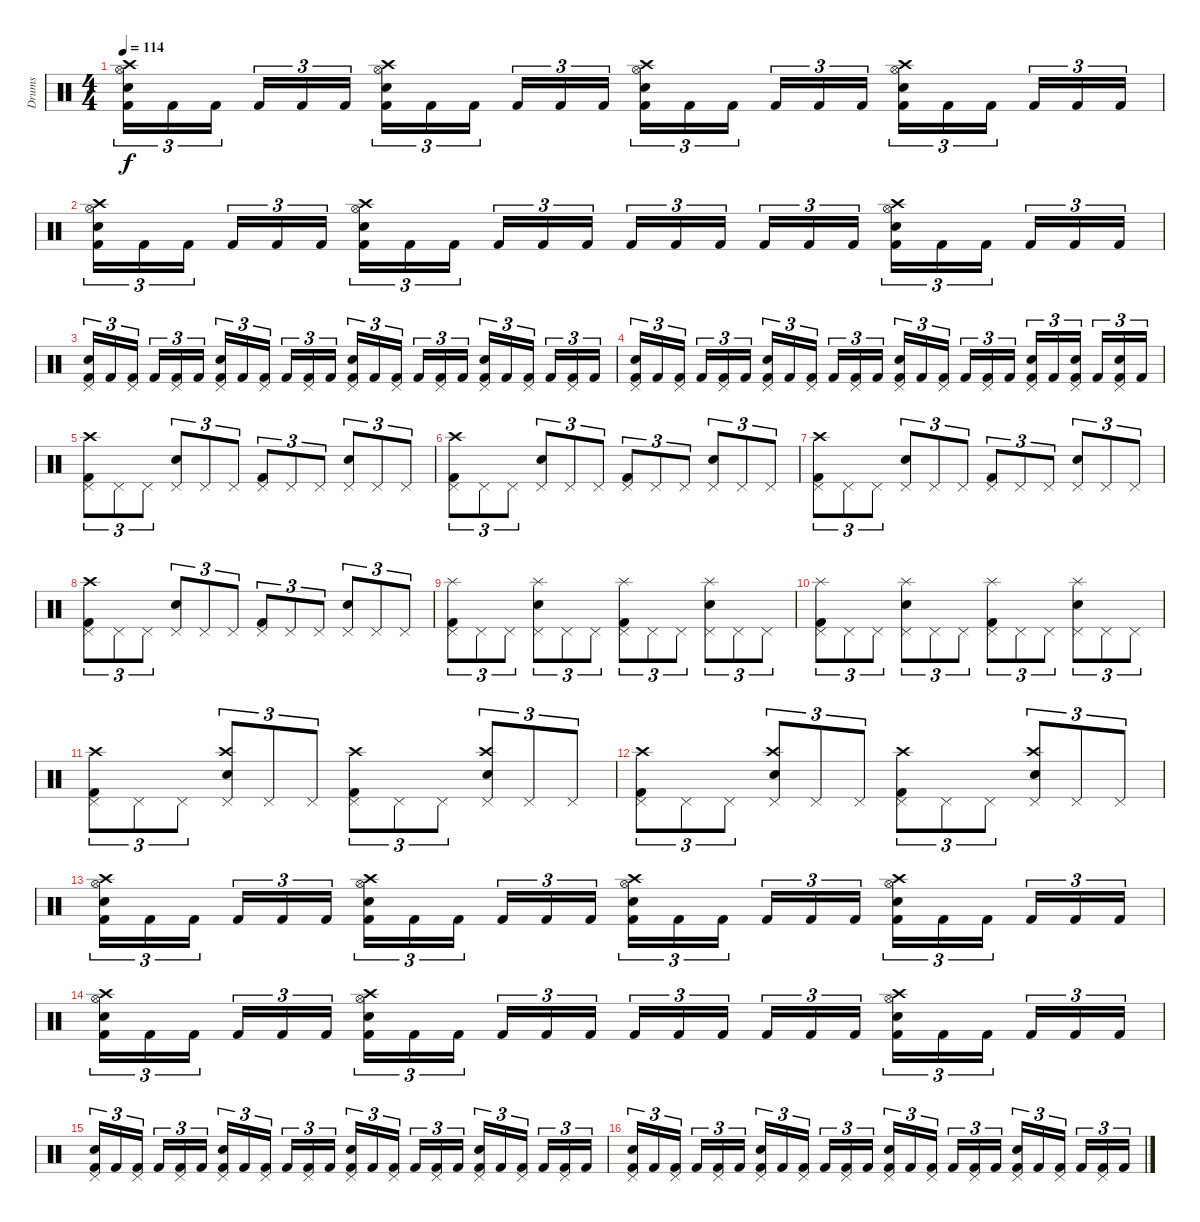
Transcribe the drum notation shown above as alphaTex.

\track ("Drums" "Drums") {instrument percussion}
\staff {score}
\articulation defaults
\ts (4 4)
\tempo 114
\clef neutral
\ks c
("Hi-Hat (open)" "Electric Snare (hit)" "Crash high (hit)" "Kick (hit) 2").16{tu (3 2) dy f} "Kick (hit) 2".16{tu (3 2)} "Kick (hit) 2".16{tu (3 2)} "Kick (hit) 2".16{tu (3 2)} "Kick (hit) 2".16{tu (3 2)} "Kick (hit) 2".16{tu (3 2)} ("Hi-Hat (open)" "Electric Snare (hit)" "Crash high (hit)" "Kick (hit) 2").16{tu (3 2)} "Kick (hit) 2".16{tu (3 2)} "Kick (hit) 2".16{tu (3 2)} "Kick (hit) 2".16{tu (3 2)} "Kick (hit) 2".16{tu (3 2)} "Kick (hit) 2".16{tu (3 2)} ("Hi-Hat (open)" "Electric Snare (hit)" "Crash high (hit)" "Kick (hit) 2").16{tu (3 2)} "Kick (hit) 2".16{tu (3 2)} "Kick (hit) 2".16{tu (3 2)} "Kick (hit) 2".16{tu (3 2)} "Kick (hit) 2".16{tu (3 2)} "Kick (hit) 2".16{tu (3 2)} ("Hi-Hat (open)" "Electric Snare (hit)" "Crash high (hit)" "Kick (hit) 2").16{tu (3 2)} "Kick (hit) 2".16{tu (3 2)} "Kick (hit) 2".16{tu (3 2)} "Kick (hit) 2".16{tu (3 2)} "Kick (hit) 2".16{tu (3 2)} "Kick (hit) 2".16{tu (3 2)} |
("Hi-Hat (open)" "Electric Snare (hit)" "Crash high (hit)" "Kick (hit) 2").16{tu (3 2)} "Kick (hit) 2".16{tu (3 2)} "Kick (hit) 2".16{tu (3 2)} "Kick (hit) 2".16{tu (3 2)} "Kick (hit) 2".16{tu (3 2)} "Kick (hit) 2".16{tu (3 2)} ("Hi-Hat (open)" "Electric Snare (hit)" "Crash high (hit)" "Kick (hit) 2").16{tu (3 2)} "Kick (hit) 2".16{tu (3 2)} "Kick (hit) 2".16{tu (3 2)} "Kick (hit) 2".16{tu (3 2)} "Kick (hit) 2".16{tu (3 2)} "Kick (hit) 2".16{tu (3 2)} "Kick (hit) 2".16{tu (3 2)} "Kick (hit) 2".16{tu (3 2)} "Kick (hit) 2".16{tu (3 2)} "Kick (hit) 2".16{tu (3 2)} "Kick (hit) 2".16{tu (3 2)} "Kick (hit) 2".16{tu (3 2)} ("Hi-Hat (open)" "Electric Snare (hit)" "Crash high (hit)" "Kick (hit) 2").16{tu (3 2)} "Kick (hit) 2".16{tu (3 2)} "Kick (hit) 2".16{tu (3 2)} "Kick (hit) 2".16{tu (3 2)} "Kick (hit) 2".16{tu (3 2)} "Kick (hit) 2".16{tu (3 2)} |
("Pedal Hi-Hat (hit)" "Electric Snare (hit)" "Kick (hit) 2").16{tu (3 2)} "Kick (hit) 2".16{tu (3 2)} ("Pedal Hi-Hat (hit)" "Kick (hit) 2").16{tu (3 2)} "Kick (hit) 2".16{tu (3 2)} ("Pedal Hi-Hat (hit)" "Kick (hit) 2").16{tu (3 2)} "Kick (hit) 2".16{tu (3 2)} ("Pedal Hi-Hat (hit)" "Electric Snare (hit)" "Kick (hit) 2").16{tu (3 2)} "Kick (hit) 2".16{tu (3 2)} ("Pedal Hi-Hat (hit)" "Kick (hit) 2").16{tu (3 2)} "Kick (hit) 2".16{tu (3 2)} ("Pedal Hi-Hat (hit)" "Kick (hit) 2").16{tu (3 2)} "Kick (hit) 2".16{tu (3 2)} ("Pedal Hi-Hat (hit)" "Electric Snare (hit)" "Kick (hit) 2").16{tu (3 2)} "Kick (hit) 2".16{tu (3 2)} ("Pedal Hi-Hat (hit)" "Kick (hit) 2").16{tu (3 2)} "Kick (hit) 2".16{tu (3 2)} ("Pedal Hi-Hat (hit)" "Kick (hit) 2").16{tu (3 2)} "Kick (hit) 2".16{tu (3 2)} ("Pedal Hi-Hat (hit)" "Electric Snare (hit)" "Kick (hit) 2").16{tu (3 2)} "Kick (hit) 2".16{tu (3 2)} ("Pedal Hi-Hat (hit)" "Kick (hit) 2").16{tu (3 2)} "Kick (hit) 2".16{tu (3 2)} ("Pedal Hi-Hat (hit)" "Kick (hit) 2").16{tu (3 2)} "Kick (hit) 2".16{tu (3 2)} |
("Pedal Hi-Hat (hit)" "Electric Snare (hit)" "Kick (hit) 2").16{tu (3 2)} "Kick (hit) 2".16{tu (3 2)} ("Pedal Hi-Hat (hit)" "Kick (hit) 2").16{tu (3 2)} "Kick (hit) 2".16{tu (3 2)} ("Pedal Hi-Hat (hit)" "Kick (hit) 2").16{tu (3 2)} "Kick (hit) 2".16{tu (3 2)} ("Pedal Hi-Hat (hit)" "Electric Snare (hit)" "Kick (hit) 2").16{tu (3 2)} "Kick (hit) 2".16{tu (3 2)} ("Pedal Hi-Hat (hit)" "Kick (hit) 2").16{tu (3 2)} "Kick (hit) 2".16{tu (3 2)} ("Pedal Hi-Hat (hit)" "Kick (hit) 2").16{tu (3 2)} "Kick (hit) 2".16{tu (3 2)} ("Pedal Hi-Hat (hit)" "Electric Snare (hit)" "Kick (hit) 2").16{tu (3 2)} "Kick (hit) 2".16{tu (3 2)} ("Pedal Hi-Hat (hit)" "Kick (hit) 2").16{tu (3 2)} "Kick (hit) 2".16{tu (3 2)} ("Pedal Hi-Hat (hit)" "Kick (hit) 2").16{tu (3 2)} "Kick (hit) 2".16{tu (3 2)} ("Pedal Hi-Hat (hit)" "Electric Snare (hit)" "Kick (hit) 2").16{tu (3 2)} "Kick (hit) 2".16{tu (3 2)} ("Pedal Hi-Hat (hit)" "Electric Snare (hit)" "Kick (hit) 2").16{tu (3 2)} "Kick (hit) 2".16{tu (3 2)} ("Pedal Hi-Hat (hit)" "Electric Snare (hit)" "Kick (hit) 2").16{tu (3 2)} "Kick (hit) 2".16{tu (3 2)} |
("Pedal Hi-Hat (hit)" "Kick (hit) 2" "Crash high (hit)").8{tu (3 2)} "Pedal Hi-Hat (hit)".8{tu (3 2)} "Pedal Hi-Hat (hit)".8{tu (3 2)} ("Pedal Hi-Hat (hit)" "Electric Snare (hit)").8{tu (3 2)} "Pedal Hi-Hat (hit)".8{tu (3 2)} "Pedal Hi-Hat (hit)".8{tu (3 2)} ("Pedal Hi-Hat (hit)" "Kick (hit) 2").8{tu (3 2)} "Pedal Hi-Hat (hit)".8{tu (3 2)} "Pedal Hi-Hat (hit)".8{tu (3 2)} ("Pedal Hi-Hat (hit)" "Electric Snare (hit)").8{tu (3 2)} "Pedal Hi-Hat (hit)".8{tu (3 2)} "Pedal Hi-Hat (hit)".8{tu (3 2)} |
("Pedal Hi-Hat (hit)" "Kick (hit) 2" "Crash high (hit)").8{tu (3 2)} "Pedal Hi-Hat (hit)".8{tu (3 2)} "Pedal Hi-Hat (hit)".8{tu (3 2)} ("Pedal Hi-Hat (hit)" "Electric Snare (hit)").8{tu (3 2)} "Pedal Hi-Hat (hit)".8{tu (3 2)} "Pedal Hi-Hat (hit)".8{tu (3 2)} ("Pedal Hi-Hat (hit)" "Kick (hit) 2").8{tu (3 2)} "Pedal Hi-Hat (hit)".8{tu (3 2)} "Pedal Hi-Hat (hit)".8{tu (3 2)} ("Pedal Hi-Hat (hit)" "Electric Snare (hit)").8{tu (3 2)} "Pedal Hi-Hat (hit)".8{tu (3 2)} "Pedal Hi-Hat (hit)".8{tu (3 2)} |
("Pedal Hi-Hat (hit)" "Kick (hit) 2" "Crash high (hit)").8{tu (3 2)} "Pedal Hi-Hat (hit)".8{tu (3 2)} "Pedal Hi-Hat (hit)".8{tu (3 2)} ("Pedal Hi-Hat (hit)" "Electric Snare (hit)").8{tu (3 2)} "Pedal Hi-Hat (hit)".8{tu (3 2)} "Pedal Hi-Hat (hit)".8{tu (3 2)} ("Pedal Hi-Hat (hit)" "Kick (hit) 2").8{tu (3 2)} "Pedal Hi-Hat (hit)".8{tu (3 2)} "Pedal Hi-Hat (hit)".8{tu (3 2)} ("Pedal Hi-Hat (hit)" "Electric Snare (hit)").8{tu (3 2)} "Pedal Hi-Hat (hit)".8{tu (3 2)} "Pedal Hi-Hat (hit)".8{tu (3 2)} |
("Pedal Hi-Hat (hit)" "Kick (hit) 2" "Crash high (hit)").8{tu (3 2)} "Pedal Hi-Hat (hit)".8{tu (3 2)} "Pedal Hi-Hat (hit)".8{tu (3 2)} ("Pedal Hi-Hat (hit)" "Electric Snare (hit)").8{tu (3 2)} "Pedal Hi-Hat (hit)".8{tu (3 2)} "Pedal Hi-Hat (hit)".8{tu (3 2)} ("Pedal Hi-Hat (hit)" "Kick (hit) 2").8{tu (3 2)} "Pedal Hi-Hat (hit)".8{tu (3 2)} "Pedal Hi-Hat (hit)".8{tu (3 2)} ("Pedal Hi-Hat (hit)" "Electric Snare (hit)").8{tu (3 2)} "Pedal Hi-Hat (hit)".8{tu (3 2)} "Pedal Hi-Hat (hit)".8{tu (3 2)} |
("Pedal Hi-Hat (hit)" "Kick (hit) 2" "Splash (hit)").8{tu (3 2)} "Pedal Hi-Hat (hit)".8{tu (3 2)} "Pedal Hi-Hat (hit)".8{tu (3 2)} ("Pedal Hi-Hat (hit)" "Electric Snare (hit)" "Splash (hit)").8{tu (3 2)} "Pedal Hi-Hat (hit)".8{tu (3 2)} "Pedal Hi-Hat (hit)".8{tu (3 2)} ("Pedal Hi-Hat (hit)" "Kick (hit) 2" "Splash (hit)").8{tu (3 2)} "Pedal Hi-Hat (hit)".8{tu (3 2)} "Pedal Hi-Hat (hit)".8{tu (3 2)} ("Pedal Hi-Hat (hit)" "Electric Snare (hit)" "Splash (hit)").8{tu (3 2)} "Pedal Hi-Hat (hit)".8{tu (3 2)} "Pedal Hi-Hat (hit)".8{tu (3 2)} |
("Pedal Hi-Hat (hit)" "Kick (hit) 2" "Splash (hit)").8{tu (3 2)} "Pedal Hi-Hat (hit)".8{tu (3 2)} "Pedal Hi-Hat (hit)".8{tu (3 2)} ("Pedal Hi-Hat (hit)" "Electric Snare (hit)" "Splash (hit)").8{tu (3 2)} "Pedal Hi-Hat (hit)".8{tu (3 2)} "Pedal Hi-Hat (hit)".8{tu (3 2)} ("Pedal Hi-Hat (hit)" "Kick (hit) 2" "Splash (hit)").8{tu (3 2)} "Pedal Hi-Hat (hit)".8{tu (3 2)} "Pedal Hi-Hat (hit)".8{tu (3 2)} ("Pedal Hi-Hat (hit)" "Electric Snare (hit)" "Splash (hit)").8{tu (3 2)} "Pedal Hi-Hat (hit)".8{tu (3 2)} "Pedal Hi-Hat (hit)".8{tu (3 2)} |
("Pedal Hi-Hat (hit)" "Kick (hit) 2" "Crash high (hit)").8{tu (3 2)} "Pedal Hi-Hat (hit)".8{tu (3 2)} "Pedal Hi-Hat (hit)".8{tu (3 2)} ("Pedal Hi-Hat (hit)" "Electric Snare (hit)" "Crash high (hit)").8{tu (3 2)} "Pedal Hi-Hat (hit)".8{tu (3 2)} "Pedal Hi-Hat (hit)".8{tu (3 2)} ("Pedal Hi-Hat (hit)" "Kick (hit) 2" "Crash high (hit)").8{tu (3 2)} "Pedal Hi-Hat (hit)".8{tu (3 2)} "Pedal Hi-Hat (hit)".8{tu (3 2)} ("Pedal Hi-Hat (hit)" "Electric Snare (hit)" "Crash high (hit)").8{tu (3 2)} "Pedal Hi-Hat (hit)".8{tu (3 2)} "Pedal Hi-Hat (hit)".8{tu (3 2)} |
("Pedal Hi-Hat (hit)" "Kick (hit) 2" "Crash high (hit)").8{tu (3 2)} "Pedal Hi-Hat (hit)".8{tu (3 2)} "Pedal Hi-Hat (hit)".8{tu (3 2)} ("Pedal Hi-Hat (hit)" "Electric Snare (hit)" "Crash high (hit)").8{tu (3 2)} "Pedal Hi-Hat (hit)".8{tu (3 2)} "Pedal Hi-Hat (hit)".8{tu (3 2)} ("Pedal Hi-Hat (hit)" "Kick (hit) 2" "Crash high (hit)").8{tu (3 2)} "Pedal Hi-Hat (hit)".8{tu (3 2)} "Pedal Hi-Hat (hit)".8{tu (3 2)} ("Pedal Hi-Hat (hit)" "Electric Snare (hit)" "Crash high (hit)").8{tu (3 2)} "Pedal Hi-Hat (hit)".8{tu (3 2)} "Pedal Hi-Hat (hit)".8{tu (3 2)} |
("Hi-Hat (open)" "Electric Snare (hit)" "Crash high (hit)" "Kick (hit) 2").16{tu (3 2)} "Kick (hit) 2".16{tu (3 2)} "Kick (hit) 2".16{tu (3 2)} "Kick (hit) 2".16{tu (3 2)} "Kick (hit) 2".16{tu (3 2)} "Kick (hit) 2".16{tu (3 2)} ("Hi-Hat (open)" "Electric Snare (hit)" "Crash high (hit)" "Kick (hit) 2").16{tu (3 2)} "Kick (hit) 2".16{tu (3 2)} "Kick (hit) 2".16{tu (3 2)} "Kick (hit) 2".16{tu (3 2)} "Kick (hit) 2".16{tu (3 2)} "Kick (hit) 2".16{tu (3 2)} ("Hi-Hat (open)" "Electric Snare (hit)" "Crash high (hit)" "Kick (hit) 2").16{tu (3 2)} "Kick (hit) 2".16{tu (3 2)} "Kick (hit) 2".16{tu (3 2)} "Kick (hit) 2".16{tu (3 2)} "Kick (hit) 2".16{tu (3 2)} "Kick (hit) 2".16{tu (3 2)} ("Hi-Hat (open)" "Electric Snare (hit)" "Crash high (hit)" "Kick (hit) 2").16{tu (3 2)} "Kick (hit) 2".16{tu (3 2)} "Kick (hit) 2".16{tu (3 2)} "Kick (hit) 2".16{tu (3 2)} "Kick (hit) 2".16{tu (3 2)} "Kick (hit) 2".16{tu (3 2)} |
("Hi-Hat (open)" "Electric Snare (hit)" "Crash high (hit)" "Kick (hit) 2").16{tu (3 2)} "Kick (hit) 2".16{tu (3 2)} "Kick (hit) 2".16{tu (3 2)} "Kick (hit) 2".16{tu (3 2)} "Kick (hit) 2".16{tu (3 2)} "Kick (hit) 2".16{tu (3 2)} ("Hi-Hat (open)" "Electric Snare (hit)" "Crash high (hit)" "Kick (hit) 2").16{tu (3 2)} "Kick (hit) 2".16{tu (3 2)} "Kick (hit) 2".16{tu (3 2)} "Kick (hit) 2".16{tu (3 2)} "Kick (hit) 2".16{tu (3 2)} "Kick (hit) 2".16{tu (3 2)} "Kick (hit) 2".16{tu (3 2)} "Kick (hit) 2".16{tu (3 2)} "Kick (hit) 2".16{tu (3 2)} "Kick (hit) 2".16{tu (3 2)} "Kick (hit) 2".16{tu (3 2)} "Kick (hit) 2".16{tu (3 2)} ("Hi-Hat (open)" "Electric Snare (hit)" "Crash high (hit)" "Kick (hit) 2").16{tu (3 2)} "Kick (hit) 2".16{tu (3 2)} "Kick (hit) 2".16{tu (3 2)} "Kick (hit) 2".16{tu (3 2)} "Kick (hit) 2".16{tu (3 2)} "Kick (hit) 2".16{tu (3 2)} |
("Pedal Hi-Hat (hit)" "Electric Snare (hit)" "Kick (hit) 2").16{tu (3 2)} "Kick (hit) 2".16{tu (3 2)} ("Pedal Hi-Hat (hit)" "Kick (hit) 2").16{tu (3 2)} "Kick (hit) 2".16{tu (3 2)} ("Pedal Hi-Hat (hit)" "Kick (hit) 2").16{tu (3 2)} "Kick (hit) 2".16{tu (3 2)} ("Pedal Hi-Hat (hit)" "Electric Snare (hit)" "Kick (hit) 2").16{tu (3 2)} "Kick (hit) 2".16{tu (3 2)} ("Pedal Hi-Hat (hit)" "Kick (hit) 2").16{tu (3 2)} "Kick (hit) 2".16{tu (3 2)} ("Pedal Hi-Hat (hit)" "Kick (hit) 2").16{tu (3 2)} "Kick (hit) 2".16{tu (3 2)} ("Pedal Hi-Hat (hit)" "Electric Snare (hit)" "Kick (hit) 2").16{tu (3 2)} "Kick (hit) 2".16{tu (3 2)} ("Pedal Hi-Hat (hit)" "Kick (hit) 2").16{tu (3 2)} "Kick (hit) 2".16{tu (3 2)} ("Pedal Hi-Hat (hit)" "Kick (hit) 2").16{tu (3 2)} "Kick (hit) 2".16{tu (3 2)} ("Pedal Hi-Hat (hit)" "Electric Snare (hit)" "Kick (hit) 2").16{tu (3 2)} "Kick (hit) 2".16{tu (3 2)} ("Pedal Hi-Hat (hit)" "Kick (hit) 2").16{tu (3 2)} "Kick (hit) 2".16{tu (3 2)} ("Pedal Hi-Hat (hit)" "Kick (hit) 2").16{tu (3 2)} "Kick (hit) 2".16{tu (3 2)} |
("Pedal Hi-Hat (hit)" "Electric Snare (hit)" "Kick (hit) 2").16{tu (3 2)} "Kick (hit) 2".16{tu (3 2)} ("Pedal Hi-Hat (hit)" "Kick (hit) 2").16{tu (3 2)} "Kick (hit) 2".16{tu (3 2)} ("Pedal Hi-Hat (hit)" "Kick (hit) 2").16{tu (3 2)} "Kick (hit) 2".16{tu (3 2)} ("Pedal Hi-Hat (hit)" "Electric Snare (hit)" "Kick (hit) 2").16{tu (3 2)} "Kick (hit) 2".16{tu (3 2)} ("Pedal Hi-Hat (hit)" "Kick (hit) 2").16{tu (3 2)} "Kick (hit) 2".16{tu (3 2)} ("Pedal Hi-Hat (hit)" "Kick (hit) 2").16{tu (3 2)} "Kick (hit) 2".16{tu (3 2)} ("Pedal Hi-Hat (hit)" "Electric Snare (hit)" "Kick (hit) 2").16{tu (3 2)} "Kick (hit) 2".16{tu (3 2)} ("Pedal Hi-Hat (hit)" "Kick (hit) 2").16{tu (3 2)} "Kick (hit) 2".16{tu (3 2)} ("Pedal Hi-Hat (hit)" "Kick (hit) 2").16{tu (3 2)} "Kick (hit) 2".16{tu (3 2)} ("Pedal Hi-Hat (hit)" "Electric Snare (hit)" "Kick (hit) 2").16{tu (3 2)} "Kick (hit) 2".16{tu (3 2)} ("Pedal Hi-Hat (hit)" "Kick (hit) 2").16{tu (3 2)} "Kick (hit) 2".16{tu (3 2)} ("Pedal Hi-Hat (hit)" "Kick (hit) 2").16{tu (3 2)} "Kick (hit) 2".16{tu (3 2)}
